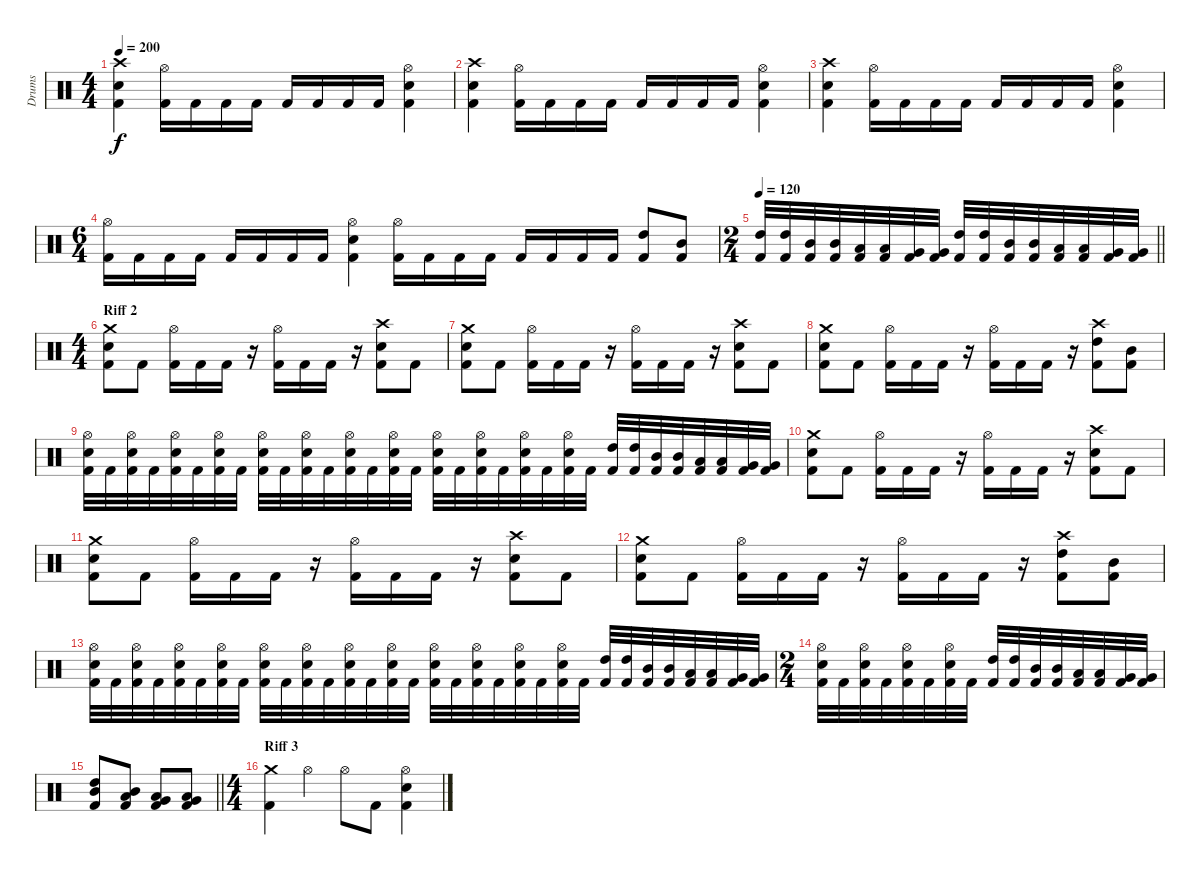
\track ("Drums" "Drums") {instrument percussion}
\staff {score}
\articulation defaults
\ts (4 4)
\tempo 200
\clef neutral
\ks c
("Crash high (hit)" "Electric Snare (hit)" "Kick (hit) 2").4{dy f} ("Hi-Hat (open)" "Kick (hit) 2").16 "Kick (hit) 2".16 "Kick (hit) 2".16 "Kick (hit) 2".16 "Kick (hit) 2".16 "Kick (hit) 2".16 "Kick (hit) 2".16 "Kick (hit) 2".16 ("Hi-Hat (open)" "Electric Snare (hit)" "Kick (hit) 2").4 |
("Crash high (hit)" "Electric Snare (hit)" "Kick (hit) 2").4 ("Hi-Hat (open)" "Kick (hit) 2").16 "Kick (hit) 2".16 "Kick (hit) 2".16 "Kick (hit) 2".16 "Kick (hit) 2".16 "Kick (hit) 2".16 "Kick (hit) 2".16 "Kick (hit) 2".16 ("Hi-Hat (open)" "Electric Snare (hit)" "Kick (hit) 2").4 |
("Crash high (hit)" "Electric Snare (hit)" "Kick (hit) 2").4 ("Hi-Hat (open)" "Kick (hit) 2").16 "Kick (hit) 2".16 "Kick (hit) 2".16 "Kick (hit) 2".16 "Kick (hit) 2".16 "Kick (hit) 2".16 "Kick (hit) 2".16 "Kick (hit) 2".16 ("Hi-Hat (open)" "Electric Snare (hit)" "Kick (hit) 2").4 |
\ts (6 4)
("Hi-Hat (open)" "Kick (hit) 2").16 "Kick (hit) 2".16 "Kick (hit) 2".16 "Kick (hit) 2".16 "Kick (hit) 2".16 "Kick (hit) 2".16 "Kick (hit) 2".16 "Kick (hit) 2".16 ("Hi-Hat (open)" "Electric Snare (hit)" "Kick (hit) 2").4 ("Hi-Hat (open)" "Kick (hit) 2").16 "Kick (hit) 2".16 "Kick (hit) 2".16 "Kick (hit) 2".16 "Kick (hit) 2".16 "Kick (hit) 2".16 "Kick (hit) 2".16 "Kick (hit) 2".16 ("High Tom (hit)" "Kick (hit) 2").8 ("Mid Tom (hit)" "Kick (hit) 2").8 |
\ts (2 4)
\tempo 120
\barLineRight lightlight
("High Tom (hit)" "Kick (hit) 2").32 ("High Tom (hit)" "Kick (hit) 2").32 ("Mid Tom (hit)" "Kick (hit) 2").32 ("Mid Tom (hit)" "Kick (hit) 2").32 ("Low Tom (hit)" "Kick (hit) 2").32 ("Low Tom (hit)" "Kick (hit) 2").32 ("Very Low Tom (hit)" "Kick (hit) 2").32 ("Very Low Tom (hit)" "Kick (hit) 2").32 ("High Tom (hit)" "Kick (hit) 2").32 ("High Tom (hit)" "Kick (hit) 2").32 ("Mid Tom (hit)" "Kick (hit) 2").32 ("Mid Tom (hit)" "Kick (hit) 2").32 ("Low Tom (hit)" "Kick (hit) 2").32 ("Low Tom (hit)" "Kick (hit) 2").32 ("Very Low Tom (hit)" "Kick (hit) 2").32 ("Very Low Tom (hit)" "Kick (hit) 2").32 |
\ts (4 4)
\section ("" "Riff 2")
("Crash medium (hit)" "Electric Snare (hit)" "Kick (hit) 2").8 "Kick (hit) 2".8 ("Hi-Hat (open)" "Kick (hit) 2").16 "Kick (hit) 2".16 "Kick (hit) 2".16 r.16 ("Hi-Hat (open)" "Kick (hit) 2").16 "Kick (hit) 2".16 "Kick (hit) 2".16 r.16 ("Crash high (hit)" "Electric Snare (hit)" "Kick (hit) 2").8 "Kick (hit) 2".8 |
("Crash medium (hit)" "Electric Snare (hit)" "Kick (hit) 2").8 "Kick (hit) 2".8 ("Hi-Hat (open)" "Kick (hit) 2").16 "Kick (hit) 2".16 "Kick (hit) 2".16 r.16 ("Hi-Hat (open)" "Kick (hit) 2").16 "Kick (hit) 2".16 "Kick (hit) 2".16 r.16 ("Crash high (hit)" "Electric Snare (hit)" "Kick (hit) 2").8 "Kick (hit) 2".8 |
("Crash medium (hit)" "Electric Snare (hit)" "Kick (hit) 2").8 "Kick (hit) 2".8 ("Hi-Hat (open)" "Kick (hit) 2").16 "Kick (hit) 2".16 "Kick (hit) 2".16 r.16 ("Hi-Hat (open)" "Kick (hit) 2").16 "Kick (hit) 2".16 "Kick (hit) 2".16 r.16 ("Crash high (hit)" "High Tom (hit)" "Kick (hit) 2").8 ("Mid Tom (hit)" "Kick (hit) 2").8 |
("Hi-Hat (open)" "Electric Snare (hit)" "Kick (hit) 2").32 "Kick (hit) 2".32 ("Hi-Hat (open)" "Electric Snare (hit)" "Kick (hit) 2").32 "Kick (hit) 2".32 ("Hi-Hat (open)" "Electric Snare (hit)" "Kick (hit) 2").32 "Kick (hit) 2".32 ("Hi-Hat (open)" "Electric Snare (hit)" "Kick (hit) 2").32 "Kick (hit) 2".32 ("Hi-Hat (open)" "Electric Snare (hit)" "Kick (hit) 2").32 "Kick (hit) 2".32 ("Hi-Hat (open)" "Electric Snare (hit)" "Kick (hit) 2").32 "Kick (hit) 2".32 ("Hi-Hat (open)" "Electric Snare (hit)" "Kick (hit) 2").32 "Kick (hit) 2".32 ("Hi-Hat (open)" "Electric Snare (hit)" "Kick (hit) 2").32 "Kick (hit) 2".32 ("Hi-Hat (open)" "Electric Snare (hit)" "Kick (hit) 2").32 "Kick (hit) 2".32 ("Hi-Hat (open)" "Electric Snare (hit)" "Kick (hit) 2").32 "Kick (hit) 2".32 ("Hi-Hat (open)" "Electric Snare (hit)" "Kick (hit) 2").32 "Kick (hit) 2".32 ("Hi-Hat (open)" "Electric Snare (hit)" "Kick (hit) 2").32 "Kick (hit) 2".32 ("High Tom (hit)" "Kick (hit) 2").32 ("High Tom (hit)" "Kick (hit) 2").32 ("Mid Tom (hit)" "Kick (hit) 2").32 ("Mid Tom (hit)" "Kick (hit) 2").32 ("Low Tom (hit)" "Kick (hit) 2").32 ("Low Tom (hit)" "Kick (hit) 2").32 ("Very Low Tom (hit)" "Kick (hit) 2").32 ("Very Low Tom (hit)" "Kick (hit) 2").32 |
("Crash medium (hit)" "Electric Snare (hit)" "Kick (hit) 2").8 "Kick (hit) 2".8 ("Hi-Hat (open)" "Kick (hit) 2").16 "Kick (hit) 2".16 "Kick (hit) 2".16 r.16 ("Hi-Hat (open)" "Kick (hit) 2").16 "Kick (hit) 2".16 "Kick (hit) 2".16 r.16 ("Crash high (hit)" "Electric Snare (hit)" "Kick (hit) 2").8 "Kick (hit) 2".8 |
("Crash medium (hit)" "Electric Snare (hit)" "Kick (hit) 2").8 "Kick (hit) 2".8 ("Hi-Hat (open)" "Kick (hit) 2").16 "Kick (hit) 2".16 "Kick (hit) 2".16 r.16 ("Hi-Hat (open)" "Kick (hit) 2").16 "Kick (hit) 2".16 "Kick (hit) 2".16 r.16 ("Crash high (hit)" "Electric Snare (hit)" "Kick (hit) 2").8 "Kick (hit) 2".8 |
("Crash medium (hit)" "Electric Snare (hit)" "Kick (hit) 2").8 "Kick (hit) 2".8 ("Hi-Hat (open)" "Kick (hit) 2").16 "Kick (hit) 2".16 "Kick (hit) 2".16 r.16 ("Hi-Hat (open)" "Kick (hit) 2").16 "Kick (hit) 2".16 "Kick (hit) 2".16 r.16 ("Crash high (hit)" "High Tom (hit)" "Kick (hit) 2").8 ("Mid Tom (hit)" "Kick (hit) 2").8 |
("Hi-Hat (open)" "Electric Snare (hit)" "Kick (hit) 2").32 "Kick (hit) 2".32 ("Hi-Hat (open)" "Electric Snare (hit)" "Kick (hit) 2").32 "Kick (hit) 2".32 ("Hi-Hat (open)" "Electric Snare (hit)" "Kick (hit) 2").32 "Kick (hit) 2".32 ("Hi-Hat (open)" "Electric Snare (hit)" "Kick (hit) 2").32 "Kick (hit) 2".32 ("Hi-Hat (open)" "Electric Snare (hit)" "Kick (hit) 2").32 "Kick (hit) 2".32 ("Hi-Hat (open)" "Electric Snare (hit)" "Kick (hit) 2").32 "Kick (hit) 2".32 ("Hi-Hat (open)" "Electric Snare (hit)" "Kick (hit) 2").32 "Kick (hit) 2".32 ("Hi-Hat (open)" "Electric Snare (hit)" "Kick (hit) 2").32 "Kick (hit) 2".32 ("Hi-Hat (open)" "Electric Snare (hit)" "Kick (hit) 2").32 "Kick (hit) 2".32 ("Hi-Hat (open)" "Electric Snare (hit)" "Kick (hit) 2").32 "Kick (hit) 2".32 ("Hi-Hat (open)" "Electric Snare (hit)" "Kick (hit) 2").32 "Kick (hit) 2".32 ("Hi-Hat (open)" "Electric Snare (hit)" "Kick (hit) 2").32 "Kick (hit) 2".32 ("High Tom (hit)" "Kick (hit) 2").32 ("High Tom (hit)" "Kick (hit) 2").32 ("Mid Tom (hit)" "Kick (hit) 2").32 ("Mid Tom (hit)" "Kick (hit) 2").32 ("Low Tom (hit)" "Kick (hit) 2").32 ("Low Tom (hit)" "Kick (hit) 2").32 ("Very Low Tom (hit)" "Kick (hit) 2").32 ("Very Low Tom (hit)" "Kick (hit) 2").32 |
\ts (2 4)
("Hi-Hat (open)" "Electric Snare (hit)" "Kick (hit) 2").32 "Kick (hit) 2".32 ("Hi-Hat (open)" "Electric Snare (hit)" "Kick (hit) 2").32 "Kick (hit) 2".32 ("Hi-Hat (open)" "Electric Snare (hit)" "Kick (hit) 2").32 "Kick (hit) 2".32 ("Hi-Hat (open)" "Electric Snare (hit)" "Kick (hit) 2").32 "Kick (hit) 2".32 ("High Tom (hit)" "Kick (hit) 2").32 ("High Tom (hit)" "Kick (hit) 2").32 ("Mid Tom (hit)" "Kick (hit) 2").32 ("Mid Tom (hit)" "Kick (hit) 2").32 ("Low Tom (hit)" "Kick (hit) 2").32 ("Low Tom (hit)" "Kick (hit) 2").32 ("Very Low Tom (hit)" "Kick (hit) 2").32 ("Very Low Tom (hit)" "Kick (hit) 2").32 |
\barLineRight lightlight
("Mid Tom (hit)" "High Tom (hit)" "Kick (hit) 2").8 ("Low Tom (hit)" "Mid Tom (hit)" "Kick (hit) 2").8 ("Very Low Tom (hit)" "Low Tom (hit)" "Kick (hit) 2").8 ("Low Floor Tom (hit)" "Very Low Tom (hit)" "Kick (hit) 2").8 |
\ts (4 4)
\section ("" "Riff 3")
("Crash medium (hit)" "Kick (hit) 2").4 "Hi-Hat (open)".4 "Hi-Hat (open)".8 "Kick (hit) 2".8 ("Hi-Hat (open)" "Electric Snare (hit)" "Kick (hit) 2").4
